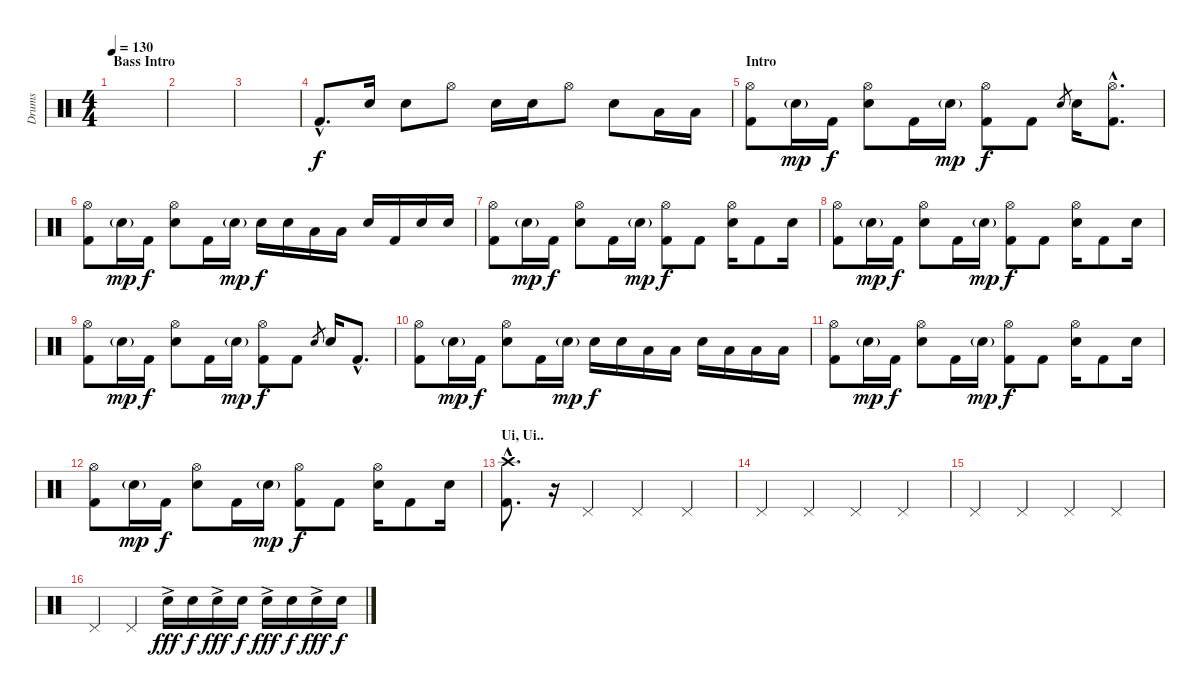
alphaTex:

\track ("Drums" "Drums") {instrument percussion}
\staff {score}
\articulation defaults
\ts (4 4)
\section ("" "Bass Intro")
\tempo 130
\clef neutral
\ks c
|
|
|
"Kick (hit) 2"{hac}.8{d} "Snare (hit) 2".16 "Snare (hit) 2".8 "Hi-Hat (open)".8 "Snare (hit) 2".16 "Snare (hit) 2".16 "Hi-Hat (open)".8 "Snare (hit) 2".8 "Low Tom (hit)".16 "Low Tom (hit)".16 |
\section ("" "Intro")
("Hi-Hat (open)" "Kick (hit) 2").8 "Snare (hit) 2"{g}.16{dy mp} "Kick (hit) 2".16{dy f} ("Hi-Hat (open)" "Snare (hit) 2").8 "Kick (hit) 2".16 "Snare (hit) 2"{g}.16{dy mp} ("Hi-Hat (open)" "Kick (hit) 2").8{dy f} "Kick (hit) 2".8 "Snare (hit) 2".8{gr} "Snare (hit) 2".16 ("Hi-Hat (open)"{hac} "Kick (hit) 2"{hac}).8{d} |
("Hi-Hat (open)" "Kick (hit) 2").8 "Snare (hit) 2"{g}.16{dy mp} "Kick (hit) 2".16{dy f} ("Hi-Hat (open)" "Snare (hit) 2").8 "Kick (hit) 2".16 "Snare (hit) 2"{g}.16{dy mp} "Snare (hit) 2".16{dy f} "Snare (hit) 2".16 "Low Tom (hit)".16 "Low Floor Tom (hit)".16 "Snare (hit) 2".16 "Kick (hit) 2".16 "Snare (hit) 2".16 "Snare (hit) 2".16 |
("Hi-Hat (open)" "Kick (hit) 2").8 "Snare (hit) 2"{g}.16{dy mp} "Kick (hit) 2".16{dy f} ("Hi-Hat (open)" "Snare (hit) 2").8 "Kick (hit) 2".16 "Snare (hit) 2"{g}.16{dy mp} ("Hi-Hat (open)" "Kick (hit) 2").8{dy f} "Kick (hit) 2".8 ("Hi-Hat (open)" "Snare (hit) 2").16 "Kick (hit) 2".8 "Snare (hit) 2".16 |
("Hi-Hat (open)" "Kick (hit) 2").8 "Snare (hit) 2"{g}.16{dy mp} "Kick (hit) 2".16{dy f} ("Hi-Hat (open)" "Snare (hit) 2").8 "Kick (hit) 2".16 "Snare (hit) 2"{g}.16{dy mp} ("Hi-Hat (open)" "Kick (hit) 2").8{dy f} "Kick (hit) 2".8 ("Hi-Hat (open)" "Snare (hit) 2").16 "Kick (hit) 2".8 "Snare (hit) 2".16 |
("Hi-Hat (open)" "Kick (hit) 2").8 "Snare (hit) 2"{g}.16{dy mp} "Kick (hit) 2".16{dy f} ("Hi-Hat (open)" "Snare (hit) 2").8 "Kick (hit) 2".16 "Snare (hit) 2"{g}.16{dy mp} ("Hi-Hat (open)" "Kick (hit) 2").8{dy f} "Kick (hit) 2".8 "Snare (hit) 2".8{gr} "Snare (hit) 2".16 "Kick (hit) 2"{hac}.8{d} |
("Hi-Hat (open)" "Kick (hit) 2").8 "Snare (hit) 2"{g}.16{dy mp} "Kick (hit) 2".16{dy f} ("Hi-Hat (open)" "Snare (hit) 2").8 "Kick (hit) 2".16 "Snare (hit) 2"{g}.16{dy mp} "Snare (hit) 2".16{dy f} "Snare (hit) 2".16 "Low Tom (hit)".16 "Low Floor Tom (hit)".16 "Snare (hit) 2".16 "Low Tom (hit)".16 "Low Tom (hit)".16 "Low Floor Tom (hit)".16 |
("Hi-Hat (open)" "Kick (hit) 2").8 "Snare (hit) 2"{g}.16{dy mp} "Kick (hit) 2".16{dy f} ("Hi-Hat (open)" "Snare (hit) 2").8 "Kick (hit) 2".16 "Snare (hit) 2"{g}.16{dy mp} ("Hi-Hat (open)" "Kick (hit) 2").8{dy f} "Kick (hit) 2".8 ("Hi-Hat (open)" "Snare (hit) 2").16 "Kick (hit) 2".8 "Snare (hit) 2".16 |
("Hi-Hat (open)" "Kick (hit) 2").8 "Snare (hit) 2"{g}.16{dy mp} "Kick (hit) 2".16{dy f} ("Hi-Hat (open)" "Snare (hit) 2").8 "Kick (hit) 2".16 "Snare (hit) 2"{g}.16{dy mp} ("Hi-Hat (open)" "Kick (hit) 2").8{dy f} "Kick (hit) 2".8 ("Hi-Hat (open)" "Snare (hit) 2").16 "Kick (hit) 2".8 "Snare (hit) 2".16 |
\section ("" "Ui, Ui..")
("Crash high (hit)"{hac} "Kick (hit) 2"{hac}).8{d} r.16 "Pedal Hi-Hat (hit)".4 "Pedal Hi-Hat (hit)".4 "Pedal Hi-Hat (hit)".4 |
"Pedal Hi-Hat (hit)".4 "Pedal Hi-Hat (hit)".4 "Pedal Hi-Hat (hit)".4 "Pedal Hi-Hat (hit)".4 |
"Pedal Hi-Hat (hit)".4 "Pedal Hi-Hat (hit)".4 "Pedal Hi-Hat (hit)".4 "Pedal Hi-Hat (hit)".4 |
"Pedal Hi-Hat (hit)".4 "Pedal Hi-Hat (hit)".4 "Snare (hit) 2"{ac}.16{dy fff} "Snare (hit) 2".16{dy f} "Snare (hit) 2"{ac}.16{dy fff} "Snare (hit) 2".16{dy f} "Snare (hit) 2"{ac}.16{dy fff} "Snare (hit) 2".16{dy f} "Snare (hit) 2"{ac}.16{dy fff} "Snare (hit) 2".16{dy f}
